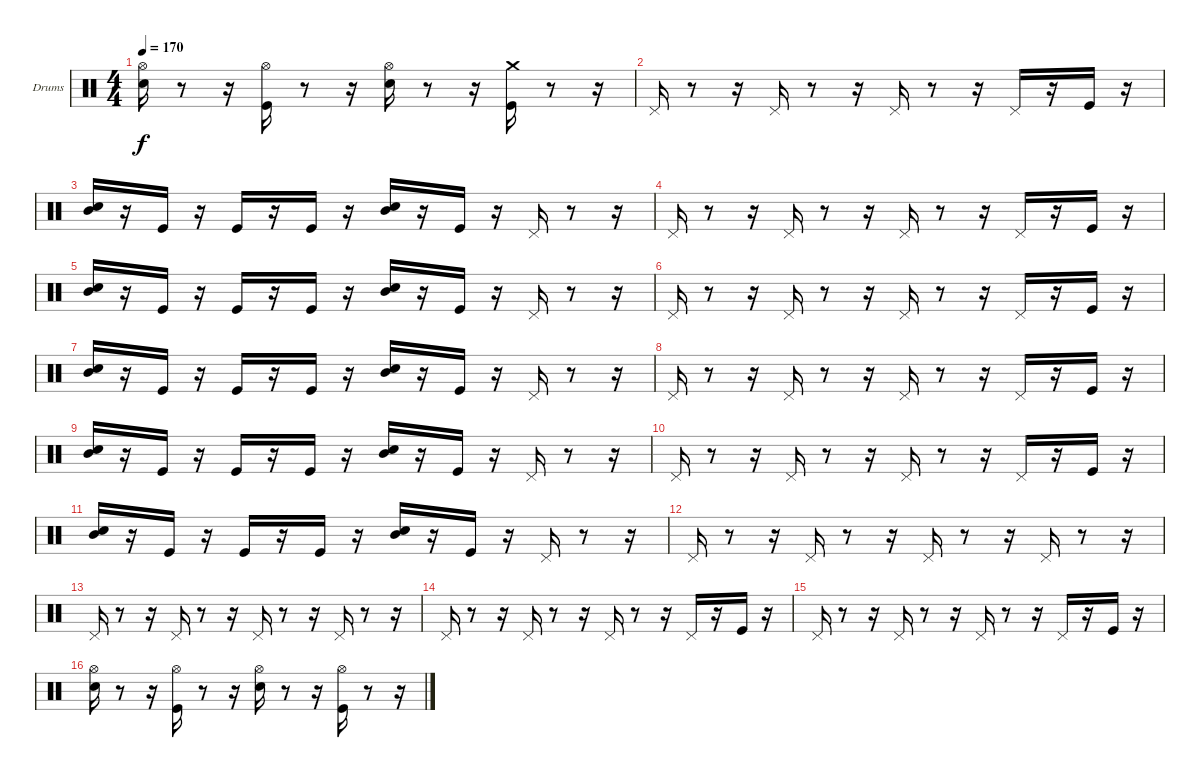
\bracketExtendMode groupsimilarinstruments
\firstSystemTrackNameOrientation horizontal
\otherSystemsTrackNameOrientation horizontal
\track ("Thomas" "Drums") {instrument percussion}
\staff {score}
\articulation defaults
\ts (4 4)
\tempo 170
\clef neutral
\ks c
("Hi-Hat (open)" "Snare (hit) 2").16{dy f} r.8 r.16 ("Hi-Hat (open)" "Kick (hit)").16 r.8 r.16 ("Hi-Hat (open)" "Snare (hit) 2").16 r.8 r.16 ("Kick (hit)" "Crash medium (hit)").16 r.8 r.16 |
"Pedal Hi-Hat (hit)".16 r.8 r.16 "Pedal Hi-Hat (hit)".16 r.8 r.16 "Pedal Hi-Hat (hit)".16 r.8 r.16 "Pedal Hi-Hat (hit)".16 r.16 "Kick (hit)".16 r.16 |
("Snare (hit) 2" "Mid Tom (hit)").16 r.16 "Kick (hit)".16 r.16 "Kick (hit)".16 r.16 "Kick (hit)".16 r.16 ("Snare (hit) 2" "Mid Tom (hit)").16 r.16 "Kick (hit)".16 r.16 "Pedal Hi-Hat (hit)".16 r.8 r.16 |
"Pedal Hi-Hat (hit)".16 r.8 r.16 "Pedal Hi-Hat (hit)".16 r.8 r.16 "Pedal Hi-Hat (hit)".16 r.8 r.16 "Pedal Hi-Hat (hit)".16 r.16 "Kick (hit)".16 r.16 |
("Snare (hit) 2" "Mid Tom (hit)").16 r.16 "Kick (hit)".16 r.16 "Kick (hit)".16 r.16 "Kick (hit)".16 r.16 ("Snare (hit) 2" "Mid Tom (hit)").16 r.16 "Kick (hit)".16 r.16 "Pedal Hi-Hat (hit)".16 r.8 r.16 |
"Pedal Hi-Hat (hit)".16 r.8 r.16 "Pedal Hi-Hat (hit)".16 r.8 r.16 "Pedal Hi-Hat (hit)".16 r.8 r.16 "Pedal Hi-Hat (hit)".16 r.16 "Kick (hit)".16 r.16 |
("Snare (hit) 2" "Mid Tom (hit)").16 r.16 "Kick (hit)".16 r.16 "Kick (hit)".16 r.16 "Kick (hit)".16 r.16 ("Snare (hit) 2" "Mid Tom (hit)").16 r.16 "Kick (hit)".16 r.16 "Pedal Hi-Hat (hit)".16 r.8 r.16 |
"Pedal Hi-Hat (hit)".16 r.8 r.16 "Pedal Hi-Hat (hit)".16 r.8 r.16 "Pedal Hi-Hat (hit)".16 r.8 r.16 "Pedal Hi-Hat (hit)".16 r.16 "Kick (hit)".16 r.16 |
("Snare (hit) 2" "Mid Tom (hit)").16 r.16 "Kick (hit)".16 r.16 "Kick (hit)".16 r.16 "Kick (hit)".16 r.16 ("Snare (hit) 2" "Mid Tom (hit)").16 r.16 "Kick (hit)".16 r.16 "Pedal Hi-Hat (hit)".16 r.8 r.16 |
"Pedal Hi-Hat (hit)".16 r.8 r.16 "Pedal Hi-Hat (hit)".16 r.8 r.16 "Pedal Hi-Hat (hit)".16 r.8 r.16 "Pedal Hi-Hat (hit)".16 r.16 "Kick (hit)".16 r.16 |
("Snare (hit) 2" "Mid Tom (hit)").16 r.16 "Kick (hit)".16 r.16 "Kick (hit)".16 r.16 "Kick (hit)".16 r.16 ("Snare (hit) 2" "Mid Tom (hit)").16 r.16 "Kick (hit)".16 r.16 "Pedal Hi-Hat (hit)".16 r.8 r.16 |
"Pedal Hi-Hat (hit)".16 r.8 r.16 "Pedal Hi-Hat (hit)".16 r.8 r.16 "Pedal Hi-Hat (hit)".16 r.8 r.16 "Pedal Hi-Hat (hit)".16 r.8 r.16 |
"Pedal Hi-Hat (hit)".16 r.8 r.16 "Pedal Hi-Hat (hit)".16 r.8 r.16 "Pedal Hi-Hat (hit)".16 r.8 r.16 "Pedal Hi-Hat (hit)".16 r.8 r.16 |
"Pedal Hi-Hat (hit)".16 r.8 r.16 "Pedal Hi-Hat (hit)".16 r.8 r.16 "Pedal Hi-Hat (hit)".16 r.8 r.16 "Pedal Hi-Hat (hit)".16 r.16 "Kick (hit)".16 r.16 |
"Pedal Hi-Hat (hit)".16 r.8 r.16 "Pedal Hi-Hat (hit)".16 r.8 r.16 "Pedal Hi-Hat (hit)".16 r.8 r.16 "Pedal Hi-Hat (hit)".16 r.16 "Kick (hit)".16 r.16 |
("Snare (hit) 2" "Hi-Hat (open)").16 r.8 r.16 ("Kick (hit)" "Hi-Hat (open)").16 r.8 r.16 ("Snare (hit) 2" "Hi-Hat (open)").16 r.8 r.16 ("Kick (hit)" "Hi-Hat (open)").16 r.8 r.16
